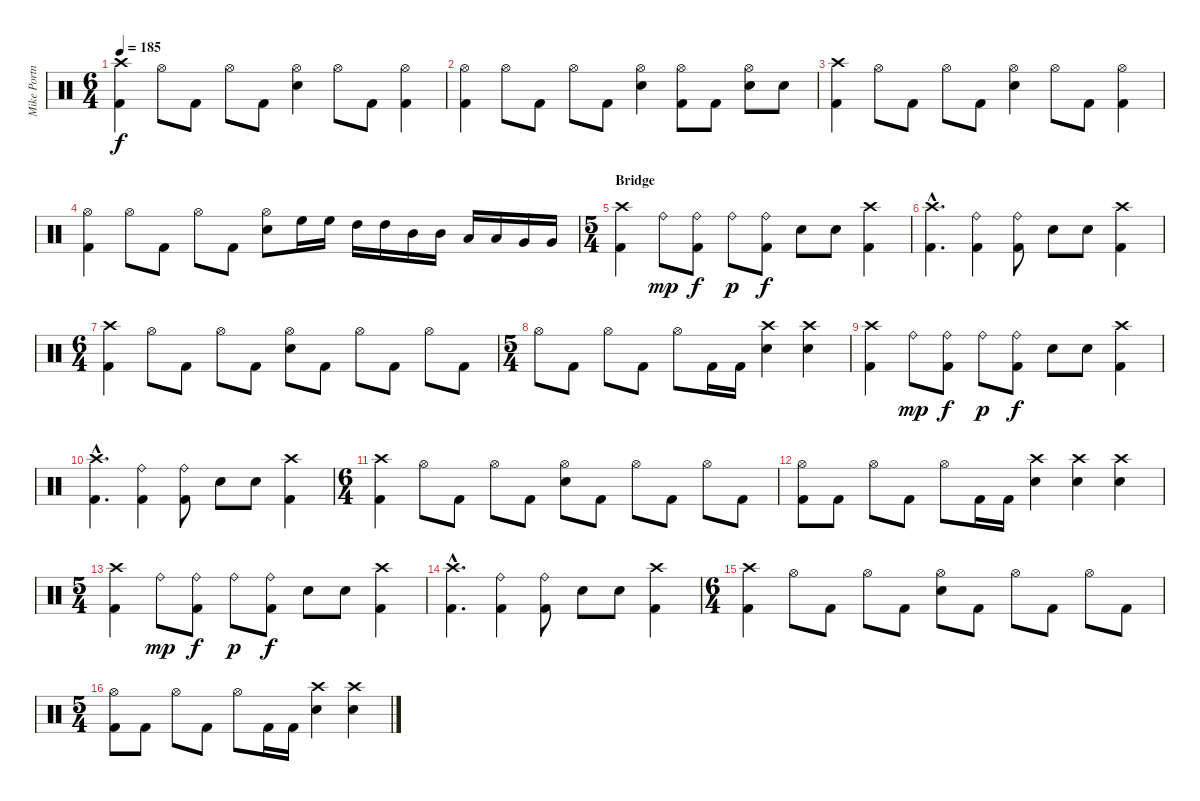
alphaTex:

\track ("Mike Portnoy" "Mike Portn") {instrument percussion}
\staff {score}
\articulation defaults
\ts (6 4)
\tempo 185
\clef neutral
\ks c
("Crash high (hit)" "Kick (hit) 2").4{dy f} "Hi-Hat (open)".8 "Kick (hit) 2".8 "Hi-Hat (open)".8 "Kick (hit) 2".8 ("Snare (hit) 2" "Hi-Hat (open)").4 "Hi-Hat (open)".8 "Kick (hit) 2".8 ("Hi-Hat (open)" "Kick (hit) 2").4 |
("Hi-Hat (open)" "Kick (hit) 2").4 "Hi-Hat (open)".8 "Kick (hit) 2".8 "Hi-Hat (open)".8 "Kick (hit) 2".8 ("Snare (hit) 2" "Hi-Hat (open)").4 ("Hi-Hat (open)" "Kick (hit) 2").8 "Kick (hit) 2".8 ("Snare (hit) 2" "Hi-Hat (open)").8 "Snare (hit) 2".8 |
("Crash high (hit)" "Kick (hit) 2").4 "Hi-Hat (open)".8 "Kick (hit) 2".8 "Hi-Hat (open)".8 "Kick (hit) 2".8 ("Snare (hit) 2" "Hi-Hat (open)").4 "Hi-Hat (open)".8 "Kick (hit) 2".8 ("Hi-Hat (open)" "Kick (hit) 2").4 |
("Hi-Hat (open)" "Kick (hit) 2").4 "Hi-Hat (open)".8 "Kick (hit) 2".8 "Hi-Hat (open)".8 "Kick (hit) 2".8 ("Snare (hit) 2" "Hi-Hat (open)").8 "High Floor Tom (hit)".16 "High Floor Tom (hit)".16 "High Tom (hit)".16 "High Tom (hit)".16 "Mid Tom (hit)".16 "Mid Tom (hit)".16 "Low Tom (hit)".16 "Low Tom (hit)".16 "Very Low Tom (hit)".16 "Very Low Tom (hit)".16 |
\ts (5 4)
\section ("" "Bridge")
("Crash high (hit)" "Kick (hit) 2").4 "Ride (bell)".8{dy mp} ("Ride (bell)" "Kick (hit) 2").8{dy f} "Ride (bell)".8{dy p} ("Ride (bell)" "Kick (hit) 2").8{dy f} "Snare (hit) 2".8 "Snare (hit) 2".8 ("Crash high (hit)" "Kick (hit) 2").4 |
("Crash high (hit)"{hac} "Kick (hit) 2"{hac}).4{d} ("Ride (bell)" "Kick (hit) 2").4 ("Ride (bell)" "Kick (hit) 2").8 "Snare (hit) 2".8 "Snare (hit) 2".8 ("Crash high (hit)" "Kick (hit) 2").4 |
\ts (6 4)
("Crash high (hit)" "Kick (hit) 2").4 "Hi-Hat (open)".8 "Kick (hit) 2".8 "Hi-Hat (open)".8 "Kick (hit) 2".8 ("Snare (hit) 2" "Hi-Hat (open)").8 "Kick (hit) 2".8 "Hi-Hat (open)".8 "Kick (hit) 2".8 "Hi-Hat (open)".8 "Kick (hit) 2".8 |
\ts (5 4)
"Hi-Hat (open)".8 "Kick (hit) 2".8 "Hi-Hat (open)".8 "Kick (hit) 2".8 "Hi-Hat (open)".8 "Kick (hit) 2".16 "Kick (hit) 2".16 ("Snare (hit) 2" "Crash high (hit)").4 ("Snare (hit) 2" "Crash high (hit)").4 |
("Crash high (hit)" "Kick (hit) 2").4 "Ride (bell)".8{dy mp} ("Ride (bell)" "Kick (hit) 2").8{dy f} "Ride (bell)".8{dy p} ("Ride (bell)" "Kick (hit) 2").8{dy f} "Snare (hit) 2".8 "Snare (hit) 2".8 ("Crash high (hit)" "Kick (hit) 2").4 |
("Crash high (hit)"{hac} "Kick (hit) 2"{hac}).4{d} ("Ride (bell)" "Kick (hit) 2").4 ("Ride (bell)" "Kick (hit) 2").8 "Snare (hit) 2".8 "Snare (hit) 2".8 ("Crash high (hit)" "Kick (hit) 2").4 |
\ts (6 4)
("Crash high (hit)" "Kick (hit) 2").4 "Hi-Hat (open)".8 "Kick (hit) 2".8 "Hi-Hat (open)".8 "Kick (hit) 2".8 ("Snare (hit) 2" "Hi-Hat (open)").8 "Kick (hit) 2".8 "Hi-Hat (open)".8 "Kick (hit) 2".8 "Hi-Hat (open)".8 "Kick (hit) 2".8 |
("Hi-Hat (open)" "Kick (hit) 2").8 "Kick (hit) 2".8 "Hi-Hat (open)".8 "Kick (hit) 2".8 "Hi-Hat (open)".8 "Kick (hit) 2".16 "Kick (hit) 2".16 ("Snare (hit) 2" "Crash high (hit)").4 ("Snare (hit) 2" "Crash high (hit)").4 ("Snare (hit) 2" "Crash high (hit)").4 |
\ts (5 4)
("Crash high (hit)" "Kick (hit) 2").4 "Ride (bell)".8{dy mp} ("Ride (bell)" "Kick (hit) 2").8{dy f} "Ride (bell)".8{dy p} ("Ride (bell)" "Kick (hit) 2").8{dy f} "Snare (hit) 2".8 "Snare (hit) 2".8 ("Crash high (hit)" "Kick (hit) 2").4 |
("Crash high (hit)"{hac} "Kick (hit) 2"{hac}).4{d} ("Ride (bell)" "Kick (hit) 2").4 ("Ride (bell)" "Kick (hit) 2").8 "Snare (hit) 2".8 "Snare (hit) 2".8 ("Crash high (hit)" "Kick (hit) 2").4 |
\ts (6 4)
("Crash high (hit)" "Kick (hit) 2").4 "Hi-Hat (open)".8 "Kick (hit) 2".8 "Hi-Hat (open)".8 "Kick (hit) 2".8 ("Snare (hit) 2" "Hi-Hat (open)").8 "Kick (hit) 2".8 "Hi-Hat (open)".8 "Kick (hit) 2".8 "Hi-Hat (open)".8 "Kick (hit) 2".8 |
\ts (5 4)
("Hi-Hat (open)" "Kick (hit) 2").8 "Kick (hit) 2".8 "Hi-Hat (open)".8 "Kick (hit) 2".8 "Hi-Hat (open)".8 "Kick (hit) 2".16 "Kick (hit) 2".16 ("Snare (hit) 2" "Crash high (hit)").4 ("Snare (hit) 2" "Crash high (hit)").4
